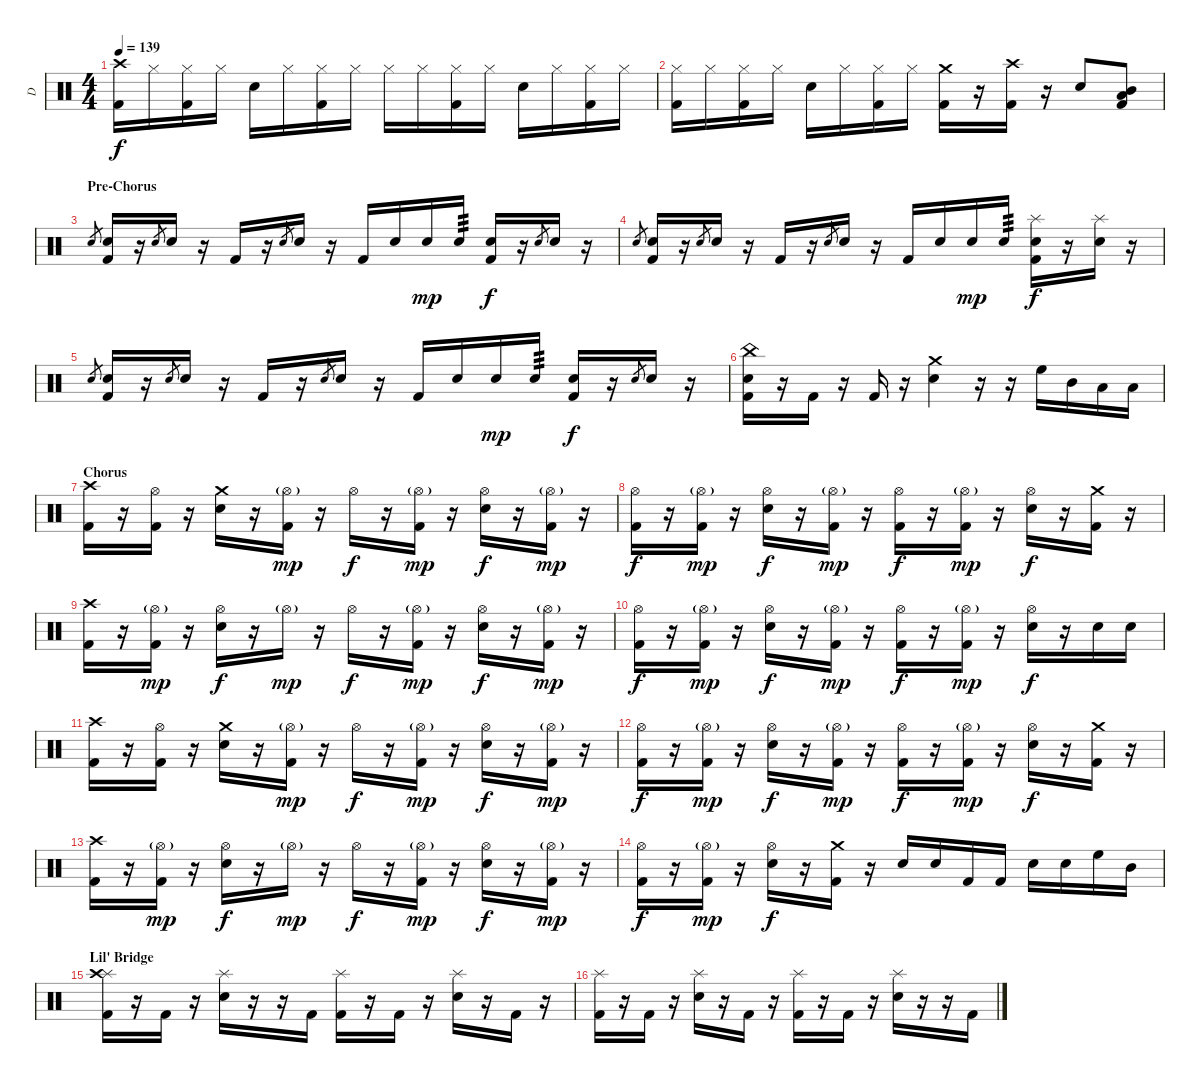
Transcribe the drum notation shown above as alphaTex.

\track ("D" "D") {instrument percussion}
\staff {score}
\articulation defaults
\ts (4 4)
\tempo 139
\clef neutral
\ks c
("Crash high (hit)" "Kick (hit) 2").16{dy f} "Hi-Hat (closed)".16 ("Hi-Hat (closed)" "Kick (hit) 2").16 "Hi-Hat (closed)".16 "Electric Snare (hit)".16 "Hi-Hat (closed)".16 ("Hi-Hat (closed)" "Kick (hit) 2").16 "Hi-Hat (closed)".16 "Hi-Hat (closed)".16 "Hi-Hat (closed)".16 ("Hi-Hat (closed)" "Kick (hit) 2").16 "Hi-Hat (closed)".16 "Electric Snare (hit)".16 "Hi-Hat (closed)".16 ("Hi-Hat (closed)" "Kick (hit) 2").16 "Hi-Hat (closed)".16 |
("Hi-Hat (closed)" "Kick (hit) 2").16 "Hi-Hat (closed)".16 ("Hi-Hat (closed)" "Kick (hit) 2").16 "Hi-Hat (closed)".16 "Electric Snare (hit)".16 "Hi-Hat (closed)".16 ("Hi-Hat (closed)" "Kick (hit) 2").16 "Hi-Hat (closed)".16 ("Crash medium (hit)" "Kick (hit) 2").16 r.16 ("Crash high (hit)" "Kick (hit) 2").16 r.16 "Electric Snare (hit)".8 ("Mid Tom (hit)" "Low Tom (hit)" "Kick (hit) 2").8 |
\section ("" "Pre-Chorus")
"Electric Snare (hit)".8{gr} ("Electric Snare (hit)" "Kick (hit) 2").16 r.16 "Electric Snare (hit)".8{gr} "Electric Snare (hit)".16 r.16 "Kick (hit) 2".16 r.16 "Electric Snare (hit)".8{gr} "Electric Snare (hit)".16 r.16 "Kick (hit) 2".16 "Electric Snare (hit)".16 "Electric Snare (hit)".16{dy mp} "Electric Snare (hit)".16{tp 3} ("Electric Snare (hit)" "Kick (hit) 2").16{dy f} r.16 "Electric Snare (hit)".8{gr} "Electric Snare (hit)".16 r.16 |
"Electric Snare (hit)".8{gr} ("Electric Snare (hit)" "Kick (hit) 2").16 r.16 "Electric Snare (hit)".8{gr} "Electric Snare (hit)".16 r.16 "Kick (hit) 2".16 r.16 "Electric Snare (hit)".8{gr} "Electric Snare (hit)".16 r.16 "Kick (hit) 2".16 "Electric Snare (hit)".16 "Electric Snare (hit)".16{dy mp} "Electric Snare (hit)".16{tp 3} ("Splash (hit)" "Electric Snare (hit)" "Kick (hit) 2").16{dy f} r.16 ("Splash (hit)" "Electric Snare (hit)").16 r.16 |
"Electric Snare (hit)".8{gr} ("Electric Snare (hit)" "Kick (hit) 2").16 r.16 "Electric Snare (hit)".8{gr} "Electric Snare (hit)".16 r.16 "Kick (hit) 2".16 r.16 "Electric Snare (hit)".8{gr} "Electric Snare (hit)".16 r.16 "Kick (hit) 2".16 "Electric Snare (hit)".16 "Electric Snare (hit)".16{dy mp} "Electric Snare (hit)".16{tp 3} ("Electric Snare (hit)" "Kick (hit) 2").16{dy f} r.16 "Electric Snare (hit)".8{gr} "Electric Snare (hit)".16 r.16 |
("China (hit)" "Electric Snare (hit)" "Kick (hit) 2").16 r.16 "Kick (hit) 2".16 r.16 "Kick (hit) 2".16 r.16 ("Crash medium (hit)" "Electric Snare (hit)").4 r.16 r.16 "High Floor Tom (hit)".16 "Mid Tom (hit)".16 "Low Tom (hit)".16 "Low Floor Tom (hit)".16 |
\section ("" "Chorus")
("Crash high (hit)" "Kick (hit) 2").16 r.16 ("Hi-Hat (open)" "Kick (hit) 2").16 r.16 ("Crash medium (hit)" "Electric Snare (hit)").16 r.16 ("Hi-Hat (open)"{g} "Kick (hit) 2").16{dy mp} r.16 "Hi-Hat (open)".16{dy f} r.16 ("Hi-Hat (open)"{g} "Kick (hit) 2").16{dy mp} r.16 ("Hi-Hat (open)" "Electric Snare (hit)").16{dy f} r.16 ("Hi-Hat (open)"{g} "Kick (hit) 2").16{dy mp} r.16 |
("Hi-Hat (open)" "Kick (hit) 2").16{dy f} r.16 ("Hi-Hat (open)"{g} "Kick (hit) 2").16{dy mp} r.16 ("Hi-Hat (open)" "Electric Snare (hit)").16{dy f} r.16 ("Hi-Hat (open)"{g} "Kick (hit) 2").16{dy mp} r.16 ("Hi-Hat (open)" "Kick (hit) 2").16{dy f} r.16 ("Hi-Hat (open)"{g} "Kick (hit) 2").16{dy mp} r.16 ("Hi-Hat (open)" "Electric Snare (hit)").16{dy f} r.16 ("Crash medium (hit)" "Kick (hit) 2").16 r.16 |
("Crash high (hit)" "Kick (hit) 2").16 r.16 ("Hi-Hat (open)"{g} "Kick (hit) 2").16{dy mp} r.16 ("Hi-Hat (open)" "Electric Snare (hit)").16{dy f} r.16 "Hi-Hat (open)"{g}.16{dy mp} r.16 "Hi-Hat (open)".16{dy f} r.16 ("Hi-Hat (open)"{g} "Kick (hit) 2").16{dy mp} r.16 ("Hi-Hat (open)" "Electric Snare (hit)").16{dy f} r.16 ("Hi-Hat (open)"{g} "Kick (hit) 2").16{dy mp} r.16 |
("Hi-Hat (open)" "Kick (hit) 2").16{dy f} r.16 ("Hi-Hat (open)"{g} "Kick (hit) 2").16{dy mp} r.16 ("Hi-Hat (open)" "Electric Snare (hit)").16{dy f} r.16 ("Hi-Hat (open)"{g} "Kick (hit) 2").16{dy mp} r.16 ("Hi-Hat (open)" "Kick (hit) 2").16{dy f} r.16 ("Hi-Hat (open)"{g} "Kick (hit) 2").16{dy mp} r.16 ("Hi-Hat (open)" "Electric Snare (hit)").16{dy f} r.16 "Electric Snare (hit)".16 "Electric Snare (hit)".16 |
("Crash high (hit)" "Kick (hit) 2").16 r.16 ("Hi-Hat (open)" "Kick (hit) 2").16 r.16 ("Crash medium (hit)" "Electric Snare (hit)").16 r.16 ("Hi-Hat (open)"{g} "Kick (hit) 2").16{dy mp} r.16 "Hi-Hat (open)".16{dy f} r.16 ("Hi-Hat (open)"{g} "Kick (hit) 2").16{dy mp} r.16 ("Hi-Hat (open)" "Electric Snare (hit)").16{dy f} r.16 ("Hi-Hat (open)"{g} "Kick (hit) 2").16{dy mp} r.16 |
("Hi-Hat (open)" "Kick (hit) 2").16{dy f} r.16 ("Hi-Hat (open)"{g} "Kick (hit) 2").16{dy mp} r.16 ("Hi-Hat (open)" "Electric Snare (hit)").16{dy f} r.16 ("Hi-Hat (open)"{g} "Kick (hit) 2").16{dy mp} r.16 ("Hi-Hat (open)" "Kick (hit) 2").16{dy f} r.16 ("Hi-Hat (open)"{g} "Kick (hit) 2").16{dy mp} r.16 ("Hi-Hat (open)" "Electric Snare (hit)").16{dy f} r.16 ("Crash medium (hit)" "Kick (hit) 2").16 r.16 |
("Crash high (hit)" "Kick (hit) 2").16 r.16 ("Hi-Hat (open)"{g} "Kick (hit) 2").16{dy mp} r.16 ("Hi-Hat (open)" "Electric Snare (hit)").16{dy f} r.16 "Hi-Hat (open)"{g}.16{dy mp} r.16 "Hi-Hat (open)".16{dy f} r.16 ("Hi-Hat (open)"{g} "Kick (hit) 2").16{dy mp} r.16 ("Hi-Hat (open)" "Electric Snare (hit)").16{dy f} r.16 ("Hi-Hat (open)"{g} "Kick (hit) 2").16{dy mp} r.16 |
("Hi-Hat (open)" "Kick (hit) 2").16{dy f} r.16 ("Hi-Hat (open)"{g} "Kick (hit) 2").16{dy mp} r.16 ("Hi-Hat (open)" "Electric Snare (hit)").16{dy f} r.16 ("Crash medium (hit)" "Kick (hit) 2").16 r.16 "Electric Snare (hit)".16 "Electric Snare (hit)".16 "Kick (hit) 2".16 "Kick (hit) 2".16 "Electric Snare (hit)".16 "Electric Snare (hit)".16 "High Floor Tom (hit)".16 "Mid Tom (hit)".16 |
\section ("" "Lil' Bridge")
("Splash (hit)" "Crash high (hit)" "Kick (hit) 2").16 r.16 "Kick (hit) 2".16 r.16 ("Splash (hit)" "Electric Snare (hit)").16 r.16 r.16 "Kick (hit) 2".16 ("Splash (hit)" "Kick (hit) 2").16 r.16 "Kick (hit) 2".16 r.16 ("Splash (hit)" "Electric Snare (hit)").16 r.16 "Kick (hit) 2".16 r.16 |
("Splash (hit)" "Kick (hit) 2").16 r.16 "Kick (hit) 2".16 r.16 ("Splash (hit)" "Electric Snare (hit)").16 r.16 "Kick (hit) 2".16 r.16 ("Splash (hit)" "Kick (hit) 2").16 r.16 "Kick (hit) 2".16 r.16 ("Splash (hit)" "Electric Snare (hit)").16 r.16 r.16 "Kick (hit) 2".16
